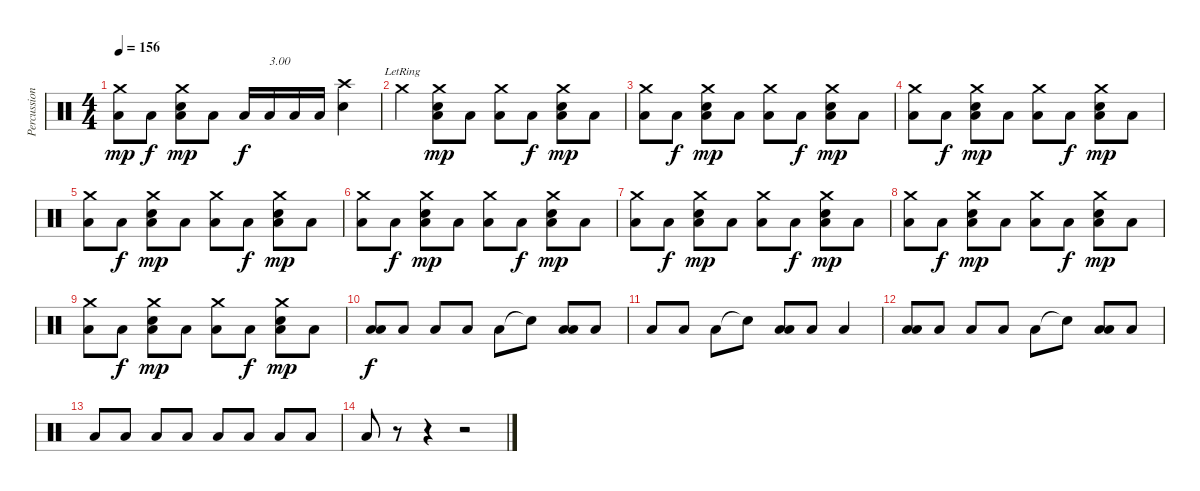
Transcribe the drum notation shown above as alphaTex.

\track ("Percussions" "Percussion") {instrument percussion}
\staff {score}
\articulation defaults
\ts (4 4)
\tempo 156
\clef neutral
\ks c
("Low Floor Tom (hit)" "Crash medium (hit)").8{dy mp} "Low Floor Tom (hit)".8{dy f} ("Low Floor Tom (hit)" "Snare (hit) 2" "Crash medium (hit)").8{dy mp} "Low Floor Tom (hit)".8 "Low Tom (hit)".16{dy f} "Low Tom (hit)".16{txt "3.00"} "Low Tom (hit)".16 "Low Tom (hit)".16 ("Snare (hit) 2" "Crash high (hit)").4 |
"Crash medium (hit)"{lr}.4 ("Low Floor Tom (hit)" "Snare (hit) 2" "Crash medium (hit)").8{dy mp} "Low Floor Tom (hit)".8 ("Low Floor Tom (hit)" "Crash medium (hit)").8 "Low Floor Tom (hit)".8{dy f} ("Low Floor Tom (hit)" "Snare (hit) 2" "Crash medium (hit)").8{dy mp} "Low Floor Tom (hit)".8 |
("Low Floor Tom (hit)" "Crash medium (hit)").8 "Low Floor Tom (hit)".8{dy f} ("Low Floor Tom (hit)" "Snare (hit) 2" "Crash medium (hit)").8{dy mp} "Low Floor Tom (hit)".8 ("Low Floor Tom (hit)" "Crash medium (hit)").8 "Low Floor Tom (hit)".8{dy f} ("Low Floor Tom (hit)" "Snare (hit) 2" "Crash medium (hit)").8{dy mp} "Low Floor Tom (hit)".8 |
("Low Floor Tom (hit)" "Crash medium (hit)").8 "Low Floor Tom (hit)".8{dy f} ("Low Floor Tom (hit)" "Snare (hit) 2" "Crash medium (hit)").8{dy mp} "Low Floor Tom (hit)".8 ("Low Floor Tom (hit)" "Crash medium (hit)").8 "Low Floor Tom (hit)".8{dy f} ("Low Floor Tom (hit)" "Snare (hit) 2" "Crash medium (hit)").8{dy mp} "Low Floor Tom (hit)".8 |
("Low Floor Tom (hit)" "Crash medium (hit)").8 "Low Floor Tom (hit)".8{dy f} ("Low Floor Tom (hit)" "Snare (hit) 2" "Crash medium (hit)").8{dy mp} "Low Floor Tom (hit)".8 ("Low Floor Tom (hit)" "Crash medium (hit)").8 "Low Floor Tom (hit)".8{dy f} ("Low Floor Tom (hit)" "Snare (hit) 2" "Crash medium (hit)").8{dy mp} "Low Floor Tom (hit)".8 |
("Low Floor Tom (hit)" "Crash medium (hit)").8 "Low Floor Tom (hit)".8{dy f} ("Low Floor Tom (hit)" "Snare (hit) 2" "Crash medium (hit)").8{dy mp} "Low Floor Tom (hit)".8 ("Low Floor Tom (hit)" "Crash medium (hit)").8 "Low Floor Tom (hit)".8{dy f} ("Low Floor Tom (hit)" "Snare (hit) 2" "Crash medium (hit)").8{dy mp} "Low Floor Tom (hit)".8 |
("Low Floor Tom (hit)" "Crash medium (hit)").8 "Low Floor Tom (hit)".8{dy f} ("Low Floor Tom (hit)" "Snare (hit) 2" "Crash medium (hit)").8{dy mp} "Low Floor Tom (hit)".8 ("Low Floor Tom (hit)" "Crash medium (hit)").8 "Low Floor Tom (hit)".8{dy f} ("Low Floor Tom (hit)" "Snare (hit) 2" "Crash medium (hit)").8{dy mp} "Low Floor Tom (hit)".8 |
("Low Floor Tom (hit)" "Crash medium (hit)").8 "Low Floor Tom (hit)".8{dy f} ("Low Floor Tom (hit)" "Snare (hit) 2" "Crash medium (hit)").8{dy mp} "Low Floor Tom (hit)".8 ("Low Floor Tom (hit)" "Crash medium (hit)").8 "Low Floor Tom (hit)".8{dy f} ("Low Floor Tom (hit)" "Snare (hit) 2" "Crash medium (hit)").8{dy mp} "Low Floor Tom (hit)".8 |
("Low Floor Tom (hit)" "Crash medium (hit)").8 "Low Floor Tom (hit)".8{dy f} ("Low Floor Tom (hit)" "Snare (hit) 2" "Crash medium (hit)").8{dy mp} "Low Floor Tom (hit)".8 ("Low Floor Tom (hit)" "Crash medium (hit)").8 "Low Floor Tom (hit)".8{dy f} ("Low Floor Tom (hit)" "Snare (hit) 2" "Crash medium (hit)").8{dy mp} "Low Floor Tom (hit)".8 |
("Low Tom (hit)" "Low Tom (hit)").8{dy f} "Low Tom (hit)".8 "Low Tom (hit)".8 "Low Tom (hit)".8 "Low Tom (hit)".8 "Snare (hit)"{t}.8 ("Low Tom (hit)" "Low Tom (hit)").8 "Low Tom (hit)".8 |
"Low Tom (hit)".8 "Low Tom (hit)".8 "Low Tom (hit)".8 "Snare (hit)"{t}.8 ("Low Tom (hit)" "Low Tom (hit)").8 "Low Tom (hit)".8 "Low Tom (hit)".4 |
("Low Tom (hit)" "Low Tom (hit)").8 "Low Tom (hit)".8 "Low Tom (hit)".8 "Low Tom (hit)".8 "Low Tom (hit)".8 "Snare (hit)"{t}.8 ("Low Tom (hit)" "Low Tom (hit)").8 "Low Tom (hit)".8 |
"Low Tom (hit)".8 "Low Tom (hit)".8 "Low Tom (hit)".8 "Low Tom (hit)".8 "Low Tom (hit)".8 "Low Tom (hit)".8 "Low Tom (hit)".8 "Low Tom (hit)".8 |
"Low Tom (hit)".8 r.8 r.4 r.2
